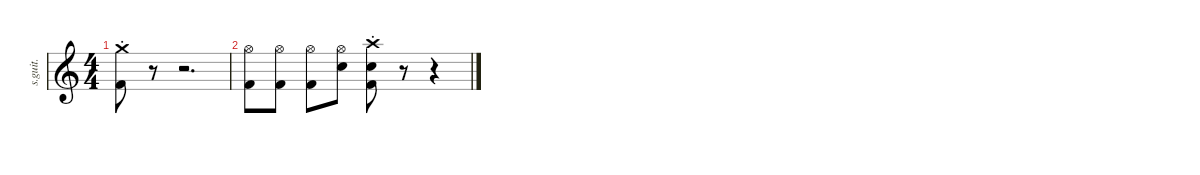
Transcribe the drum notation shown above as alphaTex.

\defaultSystemsLayout 4
\hideDynamics
\bracketExtendMode nobrackets
\track ("Lars Ulrich - Drums" "s.guit.") {instrument percussion}
\staff {score}
\articulation defaults
\ts (4 4)
\tempo (140 hide)
\clef g2
\ks c
("Crash medium (choke)" "Kick (hit) 2").8{lyrics (0 "") lyrics (1 "") lyrics (2 "") lyrics (3 "") lyrics (4 "") dy f} r.8 r.2{d} |
("Hi-Hat (open)" "Kick (hit) 2").8{lyrics (0 "") lyrics (1 "") lyrics (2 "") lyrics (3 "") lyrics (4 "")} ("Hi-Hat (open)" "Kick (hit) 2").8{lyrics (0 "") lyrics (1 "") lyrics (2 "") lyrics (3 "") lyrics (4 "")} ("Hi-Hat (open)" "Kick (hit) 2").8{lyrics (0 "") lyrics (1 "") lyrics (2 "") lyrics (3 "") lyrics (4 "")} ("Hi-Hat (open)" "Snare (hit) 2").8{lyrics (0 "") lyrics (1 "") lyrics (2 "") lyrics (3 "") lyrics (4 "")} ("Crash high (choke)" "Snare (hit) 2" "Kick (hit) 2").8{lyrics (0 "") lyrics (1 "") lyrics (2 "") lyrics (3 "") lyrics (4 "")} r.8 r.4
